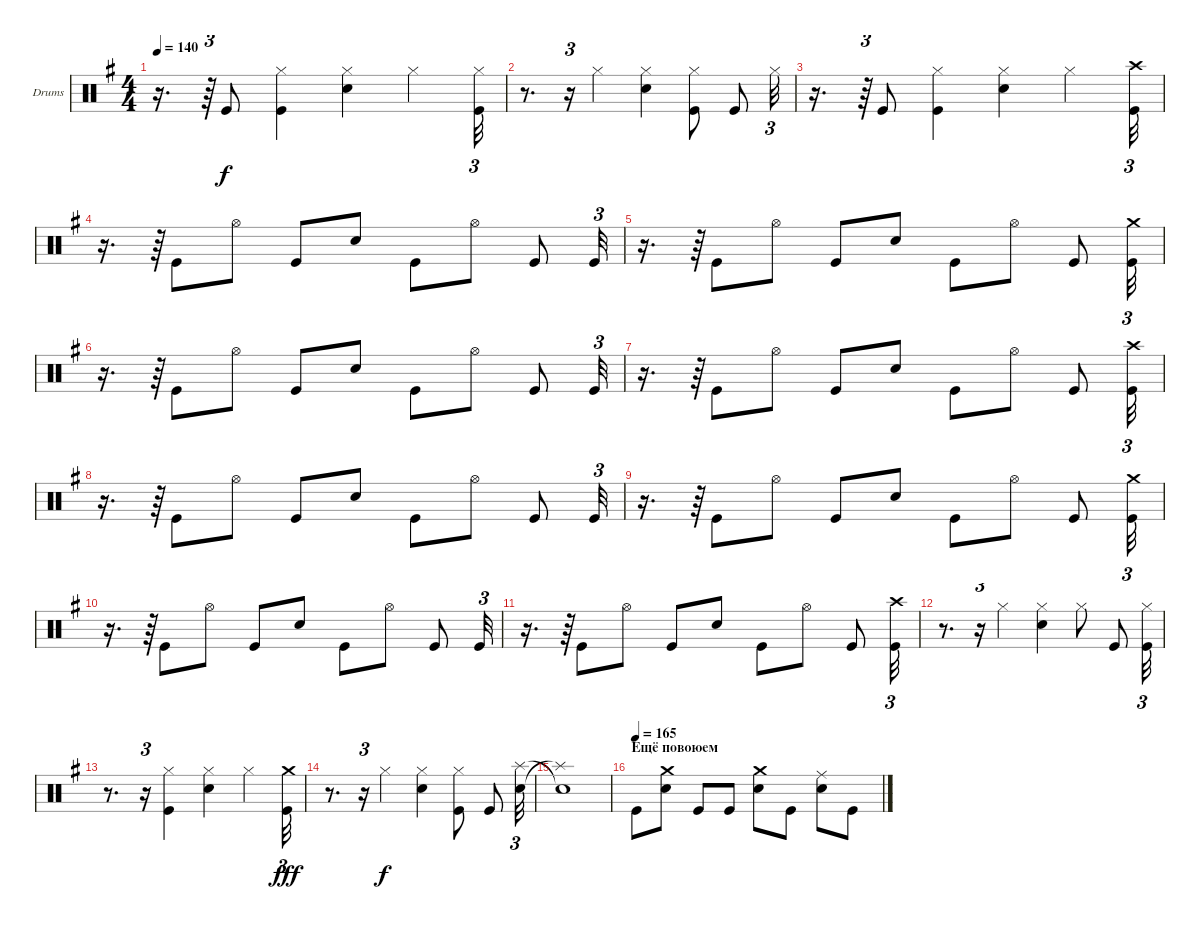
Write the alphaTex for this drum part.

\bracketExtendMode groupsimilarinstruments
\firstSystemTrackNameOrientation horizontal
\otherSystemsTrackNameOrientation horizontal
\track ("Александр Манякин" "Drums") {instrument percussion}
\staff {score}
\articulation defaults
\ts (4 4)
\tempo 140
\clef neutral
\ks eminor
r.16{d dy f} r.64{tu (3 2)} "Kick (hit)".8 ("Kick (hit)" "Hi-Hat (closed)").4 ("Snare (hit) 2" "Hi-Hat (closed)").4 "Hi-Hat (closed)".4 ("Hi-Hat (closed)" "Kick (hit)").32{tu (3 2)} |
r.8{d} r.16{tu (3 2)} "Hi-Hat (closed)".4 ("Snare (hit) 2" "Hi-Hat (closed)").4 ("Kick (hit)" "Hi-Hat (closed)").8 "Kick (hit)".8 "Hi-Hat (closed)".32{tu (3 2)} |
r.16{d} r.64{tu (3 2)} "Kick (hit)".8 ("Kick (hit)" "Hi-Hat (closed)").4 ("Snare (hit) 2" "Hi-Hat (closed)").4 "Hi-Hat (closed)".4 ("Crash high (hit)" "Kick (hit)").32{tu (3 2)} |
r.16{d} r.64{tu (3 2)} "Kick (hit)".8 "Hi-Hat (open)".8 "Kick (hit)".8 "Snare (hit) 2".8 "Kick (hit)".8 "Hi-Hat (open)".8 "Kick (hit)".8 "Kick (hit)".32{tu (3 2)} |
r.16{d} r.64{tu (3 2)} "Kick (hit)".8 "Hi-Hat (open)".8 "Kick (hit)".8 "Snare (hit) 2".8 "Kick (hit)".8 "Hi-Hat (open)".8 "Kick (hit)".8 ("Crash medium (hit)" "Kick (hit)").32{tu (3 2)} |
r.16{d} r.64{tu (3 2)} "Kick (hit)".8 "Hi-Hat (open)".8 "Kick (hit)".8 "Snare (hit) 2".8 "Kick (hit)".8 "Hi-Hat (open)".8 "Kick (hit)".8 "Kick (hit)".32{tu (3 2)} |
r.16{d} r.64{tu (3 2)} "Kick (hit)".8 "Hi-Hat (open)".8 "Kick (hit)".8 "Snare (hit) 2".8 "Kick (hit)".8 "Hi-Hat (open)".8 "Kick (hit)".8 ("Crash high (hit)" "Kick (hit)").32{tu (3 2)} |
r.16{d} r.64{tu (3 2)} "Kick (hit)".8 "Hi-Hat (open)".8 "Kick (hit)".8 "Snare (hit) 2".8 "Kick (hit)".8 "Hi-Hat (open)".8 "Kick (hit)".8 "Kick (hit)".32{tu (3 2)} |
r.16{d} r.64{tu (3 2)} "Kick (hit)".8 "Hi-Hat (open)".8 "Kick (hit)".8 "Snare (hit) 2".8 "Kick (hit)".8 "Hi-Hat (open)".8 "Kick (hit)".8 ("Crash medium (hit)" "Kick (hit)").32{tu (3 2)} |
r.16{d} r.64{tu (3 2)} "Kick (hit)".8 "Hi-Hat (open)".8 "Kick (hit)".8 "Snare (hit) 2".8 "Kick (hit)".8 "Hi-Hat (open)".8 "Kick (hit)".8 "Kick (hit)".32{tu (3 2)} |
r.16{d} r.64{tu (3 2)} "Kick (hit)".8 "Hi-Hat (open)".8 "Kick (hit)".8 "Snare (hit) 2".8 "Kick (hit)".8 "Hi-Hat (open)".8 "Kick (hit)".8 ("Crash high (hit)" "Kick (hit)").32{tu (3 2)} |
r.8{d} r.16{tu (3 2)} "Hi-Hat (closed)".4 ("Hi-Hat (closed)" "Snare (hit) 2").4 "Hi-Hat (closed)".8 "Kick (hit)".8 ("Kick (hit)" "Hi-Hat (closed)").32{tu (3 2)} |
r.8{d} r.16{tu (3 2)} ("Kick (hit)" "Hi-Hat (closed)").4 ("Snare (hit) 2" "Hi-Hat (closed)").4 "Hi-Hat (closed)".4 ("Crash medium (hit)" "Kick (hit)").32{tu (3 2) dy fff} |
r.8{d} r.16{tu (3 2)} "Hi-Hat (closed)".4{dy f} ("Hi-Hat (closed)" "Snare (hit) 2").4 ("Kick (hit)" "Hi-Hat (closed)").8 "Kick (hit)".8 ("Splash (hit)" "Snare (hit) 2").32{tu (3 2)} |
("Snare (hit) 2"{t} "Splash (hit)"{t}).1 |
\section ("" "Ещё повоюем")
\tempo (165)
"Kick (hit)".8 ("Snare (hit) 2" "Crash medium (hit)").8 "Kick (hit)".8 "Kick (hit)".8 ("Snare (hit) 2" "Crash medium (hit)").8 "Kick (hit)".8 ("Snare (hit) 2" "Ride (middle)").8 "Kick (hit)".8
